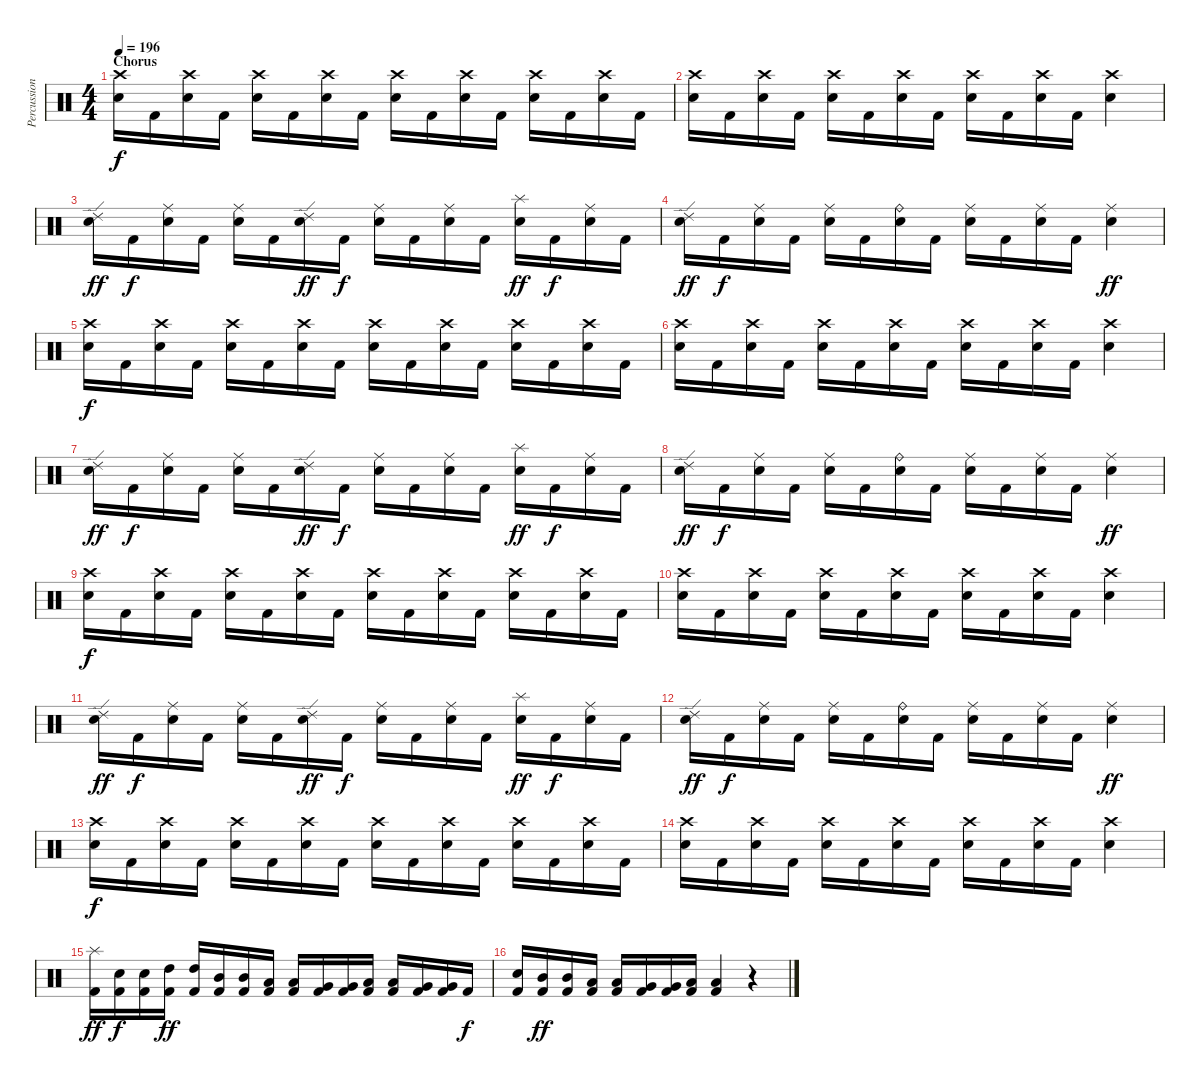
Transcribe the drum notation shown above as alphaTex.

\track ("Percussions" "Percussion") {instrument percussion}
\staff {score}
\articulation defaults
\ts (4 4)
\section ("" "Chorus")
\tempo 196
\clef neutral
\ks c
("Crash high (hit)" "Electric Snare (hit)").16{dy f} "Kick (hit) 2".16 ("Crash high (hit)" "Electric Snare (hit)").16 "Kick (hit) 2".16 ("Crash high (hit)" "Electric Snare (hit)").16 "Kick (hit) 2".16 ("Crash high (hit)" "Electric Snare (hit)").16 "Kick (hit) 2".16 ("Crash high (hit)" "Electric Snare (hit)").16 "Kick (hit) 2".16 ("Crash high (hit)" "Electric Snare (hit)").16 "Kick (hit) 2".16 ("Crash high (hit)" "Electric Snare (hit)").16 "Kick (hit) 2".16 ("Crash high (hit)" "Electric Snare (hit)").16 "Kick (hit) 2".16 |
("Crash high (hit)" "Electric Snare (hit)").16 "Kick (hit) 2".16 ("Crash high (hit)" "Electric Snare (hit)").16 "Kick (hit) 2".16 ("Crash high (hit)" "Electric Snare (hit)").16 "Kick (hit) 2".16 ("Crash high (hit)" "Electric Snare (hit)").16 "Kick (hit) 2".16 ("Crash high (hit)" "Electric Snare (hit)").16 "Kick (hit) 2".16 ("Crash high (hit)" "Electric Snare (hit)").16 "Kick (hit) 2".16 ("Crash high (hit)" "Electric Snare (hit)").4 |
("Ride (edge) 2" "Electric Snare (hit)").16{dy ff} "Kick (hit) 2".16{dy f} ("Ride (middle)" "Electric Snare (hit)").16 "Kick (hit) 2".16 ("Ride (middle)" "Electric Snare (hit)").16 "Kick (hit) 2".16 ("Ride (edge) 2" "Electric Snare (hit)").16{dy ff} "Kick (hit) 2".16{dy f} ("Ride (middle)" "Electric Snare (hit)").16 "Kick (hit) 2".16 ("Ride (middle)" "Electric Snare (hit)").16 "Kick (hit) 2".16 ("Splash (hit)" "Electric Snare (hit)").16{dy ff} "Kick (hit) 2".16{dy f} ("Ride (middle)" "Electric Snare (hit)").16 "Kick (hit) 2".16 |
("Ride (edge) 2" "Electric Snare (hit)").16{dy ff} "Kick (hit) 2".16{dy f} ("Ride (middle)" "Electric Snare (hit)").16 "Kick (hit) 2".16 ("Ride (middle)" "Electric Snare (hit)").16 "Kick (hit) 2".16 ("Ride (bell)" "Electric Snare (hit)").16 "Kick (hit) 2".16 ("Ride (middle)" "Electric Snare (hit)").16 "Kick (hit) 2".16 ("Ride (middle)" "Electric Snare (hit)").16 "Kick (hit) 2".16 ("Ride (middle)" "Electric Snare (hit)").4{dy ff} |
("Crash high (hit)" "Electric Snare (hit)").16{dy f} "Kick (hit) 2".16 ("Crash high (hit)" "Electric Snare (hit)").16 "Kick (hit) 2".16 ("Crash high (hit)" "Electric Snare (hit)").16 "Kick (hit) 2".16 ("Crash high (hit)" "Electric Snare (hit)").16 "Kick (hit) 2".16 ("Crash high (hit)" "Electric Snare (hit)").16 "Kick (hit) 2".16 ("Crash high (hit)" "Electric Snare (hit)").16 "Kick (hit) 2".16 ("Crash high (hit)" "Electric Snare (hit)").16 "Kick (hit) 2".16 ("Crash high (hit)" "Electric Snare (hit)").16 "Kick (hit) 2".16 |
("Crash high (hit)" "Electric Snare (hit)").16 "Kick (hit) 2".16 ("Crash high (hit)" "Electric Snare (hit)").16 "Kick (hit) 2".16 ("Crash high (hit)" "Electric Snare (hit)").16 "Kick (hit) 2".16 ("Crash high (hit)" "Electric Snare (hit)").16 "Kick (hit) 2".16 ("Crash high (hit)" "Electric Snare (hit)").16 "Kick (hit) 2".16 ("Crash high (hit)" "Electric Snare (hit)").16 "Kick (hit) 2".16 ("Crash high (hit)" "Electric Snare (hit)").4 |
("Ride (edge) 2" "Electric Snare (hit)").16{dy ff} "Kick (hit) 2".16{dy f} ("Ride (middle)" "Electric Snare (hit)").16 "Kick (hit) 2".16 ("Ride (middle)" "Electric Snare (hit)").16 "Kick (hit) 2".16 ("Ride (edge) 2" "Electric Snare (hit)").16{dy ff} "Kick (hit) 2".16{dy f} ("Ride (middle)" "Electric Snare (hit)").16 "Kick (hit) 2".16 ("Ride (middle)" "Electric Snare (hit)").16 "Kick (hit) 2".16 ("Splash (hit)" "Electric Snare (hit)").16{dy ff} "Kick (hit) 2".16{dy f} ("Ride (middle)" "Electric Snare (hit)").16 "Kick (hit) 2".16 |
("Ride (edge) 2" "Electric Snare (hit)").16{dy ff} "Kick (hit) 2".16{dy f} ("Ride (middle)" "Electric Snare (hit)").16 "Kick (hit) 2".16 ("Ride (middle)" "Electric Snare (hit)").16 "Kick (hit) 2".16 ("Ride (bell)" "Electric Snare (hit)").16 "Kick (hit) 2".16 ("Ride (middle)" "Electric Snare (hit)").16 "Kick (hit) 2".16 ("Ride (middle)" "Electric Snare (hit)").16 "Kick (hit) 2".16 ("Ride (middle)" "Electric Snare (hit)").4{dy ff} |
("Crash high (hit)" "Electric Snare (hit)").16{dy f} "Kick (hit) 2".16 ("Crash high (hit)" "Electric Snare (hit)").16 "Kick (hit) 2".16 ("Crash high (hit)" "Electric Snare (hit)").16 "Kick (hit) 2".16 ("Crash high (hit)" "Electric Snare (hit)").16 "Kick (hit) 2".16 ("Crash high (hit)" "Electric Snare (hit)").16 "Kick (hit) 2".16 ("Crash high (hit)" "Electric Snare (hit)").16 "Kick (hit) 2".16 ("Crash high (hit)" "Electric Snare (hit)").16 "Kick (hit) 2".16 ("Crash high (hit)" "Electric Snare (hit)").16 "Kick (hit) 2".16 |
("Crash high (hit)" "Electric Snare (hit)").16 "Kick (hit) 2".16 ("Crash high (hit)" "Electric Snare (hit)").16 "Kick (hit) 2".16 ("Crash high (hit)" "Electric Snare (hit)").16 "Kick (hit) 2".16 ("Crash high (hit)" "Electric Snare (hit)").16 "Kick (hit) 2".16 ("Crash high (hit)" "Electric Snare (hit)").16 "Kick (hit) 2".16 ("Crash high (hit)" "Electric Snare (hit)").16 "Kick (hit) 2".16 ("Crash high (hit)" "Electric Snare (hit)").4 |
("Ride (edge) 2" "Electric Snare (hit)").16{dy ff} "Kick (hit) 2".16{dy f} ("Ride (middle)" "Electric Snare (hit)").16 "Kick (hit) 2".16 ("Ride (middle)" "Electric Snare (hit)").16 "Kick (hit) 2".16 ("Ride (edge) 2" "Electric Snare (hit)").16{dy ff} "Kick (hit) 2".16{dy f} ("Ride (middle)" "Electric Snare (hit)").16 "Kick (hit) 2".16 ("Ride (middle)" "Electric Snare (hit)").16 "Kick (hit) 2".16 ("Splash (hit)" "Electric Snare (hit)").16{dy ff} "Kick (hit) 2".16{dy f} ("Ride (middle)" "Electric Snare (hit)").16 "Kick (hit) 2".16 |
("Ride (edge) 2" "Electric Snare (hit)").16{dy ff} "Kick (hit) 2".16{dy f} ("Ride (middle)" "Electric Snare (hit)").16 "Kick (hit) 2".16 ("Ride (middle)" "Electric Snare (hit)").16 "Kick (hit) 2".16 ("Ride (bell)" "Electric Snare (hit)").16 "Kick (hit) 2".16 ("Ride (middle)" "Electric Snare (hit)").16 "Kick (hit) 2".16 ("Ride (middle)" "Electric Snare (hit)").16 "Kick (hit) 2".16 ("Ride (middle)" "Electric Snare (hit)").4{dy ff} |
("Crash high (hit)" "Electric Snare (hit)").16{dy f} "Kick (hit) 2".16 ("Crash high (hit)" "Electric Snare (hit)").16 "Kick (hit) 2".16 ("Crash high (hit)" "Electric Snare (hit)").16 "Kick (hit) 2".16 ("Crash high (hit)" "Electric Snare (hit)").16 "Kick (hit) 2".16 ("Crash high (hit)" "Electric Snare (hit)").16 "Kick (hit) 2".16 ("Crash high (hit)" "Electric Snare (hit)").16 "Kick (hit) 2".16 ("Crash high (hit)" "Electric Snare (hit)").16 "Kick (hit) 2".16 ("Crash high (hit)" "Electric Snare (hit)").16 "Kick (hit) 2".16 |
("Crash high (hit)" "Electric Snare (hit)").16 "Kick (hit) 2".16 ("Crash high (hit)" "Electric Snare (hit)").16 "Kick (hit) 2".16 ("Crash high (hit)" "Electric Snare (hit)").16 "Kick (hit) 2".16 ("Crash high (hit)" "Electric Snare (hit)").16 "Kick (hit) 2".16 ("Crash high (hit)" "Electric Snare (hit)").16 "Kick (hit) 2".16 ("Crash high (hit)" "Electric Snare (hit)").16 "Kick (hit) 2".16 ("Crash high (hit)" "Electric Snare (hit)").4 |
("Splash (hit)" "Kick (hit) 2").16{dy ff} ("Electric Snare (hit)" "Kick (hit) 2").16{dy f} ("Electric Snare (hit)" "Kick (hit) 2").16 ("High Tom (hit)" "Kick (hit) 2").16{dy ff} ("High Tom (hit)" "Kick (hit) 2").16 ("Mid Tom (hit)" "Kick (hit) 2").16 ("Mid Tom (hit)" "Kick (hit) 2").16 ("Low Tom (hit)" "Kick (hit) 2").16 ("Low Tom (hit)" "Kick (hit) 2").16 ("Very Low Tom (hit)" "Kick (hit) 2").16 ("Very Low Tom (hit)" "Kick (hit) 2").16 ("Low Tom (hit)" "Kick (hit) 2").16 ("Low Tom (hit)" "Kick (hit) 2").16 ("Very Low Tom (hit)" "Kick (hit) 2").16 ("Very Low Tom (hit)" "Kick (hit) 2").16 "Kick (hit) 2".16{dy f} |
("Electric Snare (hit)" "Kick (hit) 2").16 ("Mid Tom (hit)" "Kick (hit) 2").16{dy ff} ("Mid Tom (hit)" "Kick (hit) 2").16 ("Low Tom (hit)" "Kick (hit) 2").16 ("Low Tom (hit)" "Kick (hit) 2").16 ("Very Low Tom (hit)" "Kick (hit) 2").16 ("Very Low Tom (hit)" "Kick (hit) 2").16 ("Low Floor Tom (hit)" "Kick (hit) 2").16 ("Low Tom (hit)" "Kick (hit) 2").4 r.4
